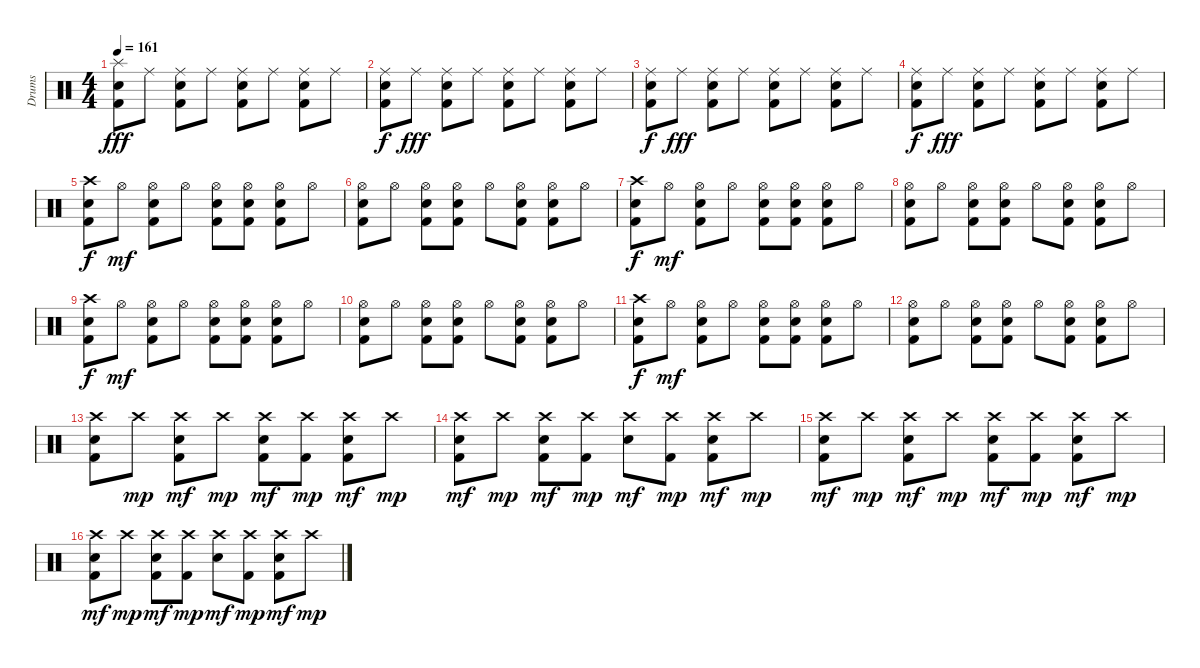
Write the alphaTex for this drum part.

\track ("Drums" "Drums") {instrument percussion}
\staff {score}
\articulation defaults
\ts (4 4)
\tempo 161
\clef neutral
\ks c
("Splash (hit)" "Electric Snare (hit)" "Kick (hit) 2").8{dy fff} "Ride (middle)".8 ("Ride (middle)" "Electric Snare (hit)" "Kick (hit) 2").8 "Ride (middle)".8 ("Ride (middle)" "Electric Snare (hit)" "Kick (hit) 2").8 "Ride (middle)".8 ("Ride (middle)" "Electric Snare (hit)" "Kick (hit) 2").8 "Ride (middle)".8 |
("Ride (middle)" "Electric Snare (hit)" "Kick (hit) 2").8{dy f} "Ride (middle)".8{dy fff} ("Ride (middle)" "Electric Snare (hit)" "Kick (hit) 2").8 "Ride (middle)".8 ("Ride (middle)" "Electric Snare (hit)" "Kick (hit) 2").8 "Ride (middle)".8 ("Ride (middle)" "Electric Snare (hit)" "Kick (hit) 2").8 "Ride (middle)".8 |
("Ride (middle)" "Electric Snare (hit)" "Kick (hit) 2").8{dy f} "Ride (middle)".8{dy fff} ("Ride (middle)" "Electric Snare (hit)" "Kick (hit) 2").8 "Ride (middle)".8 ("Ride (middle)" "Electric Snare (hit)" "Kick (hit) 2").8 "Ride (middle)".8 ("Ride (middle)" "Electric Snare (hit)" "Kick (hit) 2").8 "Ride (middle)".8 |
("Ride (middle)" "Electric Snare (hit)" "Kick (hit) 2").8{dy f} "Ride (middle)".8{dy fff} ("Ride (middle)" "Electric Snare (hit)" "Kick (hit) 2").8 "Ride (middle)".8 ("Ride (middle)" "Electric Snare (hit)" "Kick (hit) 2").8 "Ride (middle)".8 ("Ride (middle)" "Electric Snare (hit)" "Kick (hit) 2").8 "Ride (middle)".8 |
("Crash high (hit)" "Electric Snare (hit)" "Kick (hit) 2").8{dy f} "Hi-Hat (open)".8{dy mf} ("Hi-Hat (open)" "Electric Snare (hit)" "Kick (hit) 2").8 "Hi-Hat (open)".8 ("Hi-Hat (open)" "Electric Snare (hit)" "Kick (hit) 2").8 ("Hi-Hat (open)" "Electric Snare (hit)" "Kick (hit) 2").8 ("Hi-Hat (open)" "Electric Snare (hit)" "Kick (hit) 2").8 "Hi-Hat (open)".8 |
("Hi-Hat (open)" "Electric Snare (hit)" "Kick (hit) 2").8 "Hi-Hat (open)".8 ("Hi-Hat (open)" "Electric Snare (hit)" "Kick (hit) 2").8 ("Hi-Hat (open)" "Electric Snare (hit)" "Kick (hit) 2").8 "Hi-Hat (open)".8 ("Hi-Hat (open)" "Electric Snare (hit)" "Kick (hit) 2").8 ("Hi-Hat (open)" "Electric Snare (hit)" "Kick (hit) 2").8 "Hi-Hat (open)".8 |
("Crash high (hit)" "Electric Snare (hit)" "Kick (hit) 2").8{dy f} "Hi-Hat (open)".8{dy mf} ("Hi-Hat (open)" "Electric Snare (hit)" "Kick (hit) 2").8 "Hi-Hat (open)".8 ("Hi-Hat (open)" "Electric Snare (hit)" "Kick (hit) 2").8 ("Hi-Hat (open)" "Electric Snare (hit)" "Kick (hit) 2").8 ("Hi-Hat (open)" "Electric Snare (hit)" "Kick (hit) 2").8 "Hi-Hat (open)".8 |
("Hi-Hat (open)" "Electric Snare (hit)" "Kick (hit) 2").8 "Hi-Hat (open)".8 ("Hi-Hat (open)" "Electric Snare (hit)" "Kick (hit) 2").8 ("Hi-Hat (open)" "Electric Snare (hit)" "Kick (hit) 2").8 "Hi-Hat (open)".8 ("Hi-Hat (open)" "Electric Snare (hit)" "Kick (hit) 2").8 ("Hi-Hat (open)" "Electric Snare (hit)" "Kick (hit) 2").8 "Hi-Hat (open)".8 |
("Crash high (hit)" "Electric Snare (hit)" "Kick (hit) 2").8{dy f} "Hi-Hat (open)".8{dy mf} ("Hi-Hat (open)" "Electric Snare (hit)" "Kick (hit) 2").8 "Hi-Hat (open)".8 ("Hi-Hat (open)" "Electric Snare (hit)" "Kick (hit) 2").8 ("Hi-Hat (open)" "Electric Snare (hit)" "Kick (hit) 2").8 ("Hi-Hat (open)" "Electric Snare (hit)" "Kick (hit) 2").8 "Hi-Hat (open)".8 |
("Hi-Hat (open)" "Electric Snare (hit)" "Kick (hit) 2").8 "Hi-Hat (open)".8 ("Hi-Hat (open)" "Electric Snare (hit)" "Kick (hit) 2").8 ("Hi-Hat (open)" "Electric Snare (hit)" "Kick (hit) 2").8 "Hi-Hat (open)".8 ("Hi-Hat (open)" "Electric Snare (hit)" "Kick (hit) 2").8 ("Hi-Hat (open)" "Electric Snare (hit)" "Kick (hit) 2").8 "Hi-Hat (open)".8 |
("Crash high (hit)" "Electric Snare (hit)" "Kick (hit) 2").8{dy f} "Hi-Hat (open)".8{dy mf} ("Hi-Hat (open)" "Electric Snare (hit)" "Kick (hit) 2").8 "Hi-Hat (open)".8 ("Hi-Hat (open)" "Electric Snare (hit)" "Kick (hit) 2").8 ("Hi-Hat (open)" "Electric Snare (hit)" "Kick (hit) 2").8 ("Hi-Hat (open)" "Electric Snare (hit)" "Kick (hit) 2").8 "Hi-Hat (open)".8 |
("Hi-Hat (open)" "Electric Snare (hit)" "Kick (hit) 2").8 "Hi-Hat (open)".8 ("Hi-Hat (open)" "Electric Snare (hit)" "Kick (hit) 2").8 ("Hi-Hat (open)" "Electric Snare (hit)" "Kick (hit) 2").8 "Hi-Hat (open)".8 ("Hi-Hat (open)" "Electric Snare (hit)" "Kick (hit) 2").8 ("Hi-Hat (open)" "Electric Snare (hit)" "Kick (hit) 2").8 "Hi-Hat (open)".8 |
("Crash high (hit)" "Electric Snare (hit)" "Kick (hit) 2").8 "Crash high (hit)".8{dy mp} ("Crash high (hit)" "Electric Snare (hit)" "Kick (hit) 2").8{dy mf} "Crash high (hit)".8{dy mp} ("Crash high (hit)" "Electric Snare (hit)" "Kick (hit) 2").8{dy mf} ("Crash high (hit)" "Kick (hit) 2").8{dy mp} ("Crash high (hit)" "Electric Snare (hit)" "Kick (hit) 2").8{dy mf} "Crash high (hit)".8{dy mp} |
("Crash high (hit)" "Electric Snare (hit)" "Kick (hit) 2").8{dy mf} "Crash high (hit)".8{dy mp} ("Crash high (hit)" "Electric Snare (hit)" "Kick (hit) 2").8{dy mf} ("Crash high (hit)" "Kick (hit) 2").8{dy mp} ("Crash high (hit)" "Electric Snare (hit)").8{dy mf} ("Crash high (hit)" "Kick (hit) 2").8{dy mp} ("Crash high (hit)" "Electric Snare (hit)" "Kick (hit) 2").8{dy mf} "Crash high (hit)".8{dy mp} |
("Crash high (hit)" "Electric Snare (hit)" "Kick (hit) 2").8{dy mf} "Crash high (hit)".8{dy mp} ("Crash high (hit)" "Electric Snare (hit)" "Kick (hit) 2").8{dy mf} "Crash high (hit)".8{dy mp} ("Crash high (hit)" "Electric Snare (hit)" "Kick (hit) 2").8{dy mf} ("Crash high (hit)" "Kick (hit) 2").8{dy mp} ("Crash high (hit)" "Electric Snare (hit)" "Kick (hit) 2").8{dy mf} "Crash high (hit)".8{dy mp} |
("Crash high (hit)" "Electric Snare (hit)" "Kick (hit) 2").8{dy mf} "Crash high (hit)".8{dy mp} ("Crash high (hit)" "Electric Snare (hit)" "Kick (hit) 2").8{dy mf} ("Crash high (hit)" "Kick (hit) 2").8{dy mp} ("Crash high (hit)" "Electric Snare (hit)").8{dy mf} ("Crash high (hit)" "Kick (hit) 2").8{dy mp} ("Crash high (hit)" "Electric Snare (hit)" "Kick (hit) 2").8{dy mf} "Crash high (hit)".8{dy mp}
